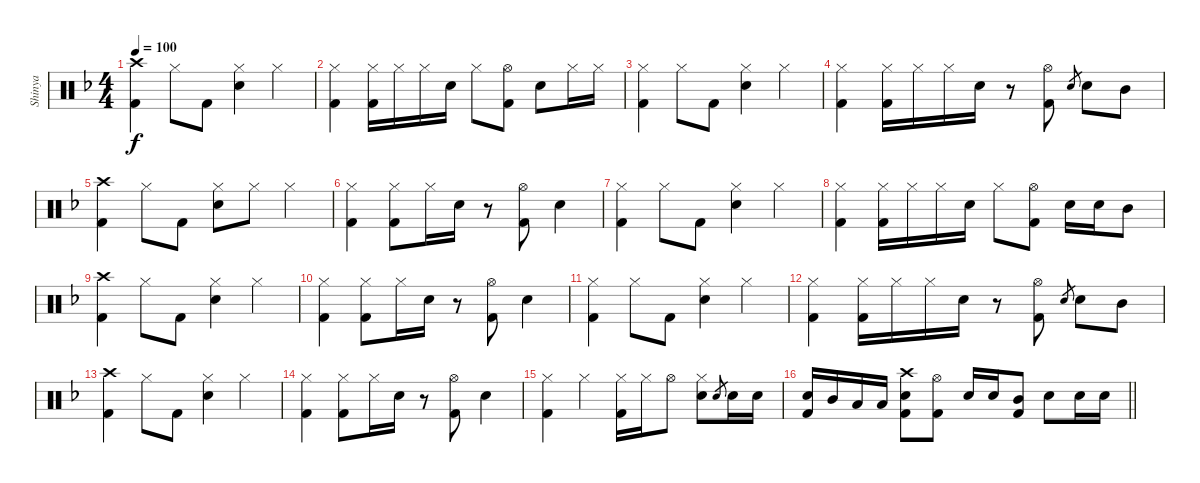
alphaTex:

\track ("Shinya" "Shinya") {instrument percussion}
\staff {score}
\articulation defaults
\ts (4 4)
\tempo 100
\clef neutral
\ks f
("Crash high (hit)" "Kick (hit) 2").4{dy f} "Hi-Hat (closed)".8 "Kick (hit) 2".8 ("Hi-Hat (closed)" "Electric Snare (hit)").4 "Hi-Hat (closed)".4 |
("Hi-Hat (closed)" "Kick (hit) 2").4 ("Hi-Hat (closed)" "Kick (hit) 2").16 "Hi-Hat (closed)".16 "Hi-Hat (closed)".16 "Electric Snare (hit)".16 "Hi-Hat (closed)".8 ("Hi-Hat (open)" "Kick (hit) 2").8 "Electric Snare (hit)".8 "Hi-Hat (closed)".16 "Hi-Hat (closed)".16 |
("Hi-Hat (closed)" "Kick (hit) 2").4 "Hi-Hat (closed)".8 "Kick (hit) 2".8 ("Hi-Hat (closed)" "Electric Snare (hit)").4 "Hi-Hat (closed)".4 |
("Hi-Hat (closed)" "Kick (hit) 2").4 ("Hi-Hat (closed)" "Kick (hit) 2").16 "Hi-Hat (closed)".16 "Hi-Hat (closed)".16 "Electric Snare (hit)".16 r.8 ("Hi-Hat (open)" "Kick (hit) 2").8 "Electric Snare (hit)".8{gr} "Electric Snare (hit)".8 "Mid Tom (hit)".8 |
("Crash high (hit)" "Kick (hit) 2").4 "Hi-Hat (closed)".8 "Kick (hit) 2".8 ("Hi-Hat (closed)" "Electric Snare (hit)").8 "Hi-Hat (closed)".8 "Hi-Hat (closed)".4 |
("Hi-Hat (closed)" "Kick (hit) 2").4 ("Hi-Hat (closed)" "Kick (hit) 2").8 "Hi-Hat (closed)".16 "Electric Snare (hit)".16 r.8 ("Hi-Hat (open)" "Kick (hit) 2").8 "Electric Snare (hit)".4 |
("Hi-Hat (closed)" "Kick (hit) 2").4 "Hi-Hat (closed)".8 "Kick (hit) 2".8 ("Hi-Hat (closed)" "Electric Snare (hit)").4 "Hi-Hat (closed)".4 |
("Hi-Hat (closed)" "Kick (hit) 2").4 ("Hi-Hat (closed)" "Kick (hit) 2").16 "Hi-Hat (closed)".16 "Hi-Hat (closed)".16 "Electric Snare (hit)".16 "Hi-Hat (closed)".8 ("Hi-Hat (open)" "Kick (hit) 2").8 "Electric Snare (hit)".16 "Electric Snare (hit)".16 "Mid Tom (hit)".8 |
("Crash high (hit)" "Kick (hit) 2").4 "Hi-Hat (closed)".8 "Kick (hit) 2".8 ("Hi-Hat (closed)" "Electric Snare (hit)").4 "Hi-Hat (closed)".4 |
("Hi-Hat (closed)" "Kick (hit) 2").4 ("Hi-Hat (closed)" "Kick (hit) 2").8 "Hi-Hat (closed)".16 "Electric Snare (hit)".16 r.8 ("Hi-Hat (open)" "Kick (hit) 2").8 "Electric Snare (hit)".4 |
("Hi-Hat (closed)" "Kick (hit) 2").4 "Hi-Hat (closed)".8 "Kick (hit) 2".8 ("Hi-Hat (closed)" "Electric Snare (hit)").4 "Hi-Hat (closed)".4 |
("Hi-Hat (closed)" "Kick (hit) 2").4 ("Hi-Hat (closed)" "Kick (hit) 2").16 "Hi-Hat (closed)".16 "Hi-Hat (closed)".16 "Electric Snare (hit)".16 r.8 ("Hi-Hat (open)" "Kick (hit) 2").8 "Electric Snare (hit)".8{gr} "Electric Snare (hit)".8 "Mid Tom (hit)".8 |
("Crash high (hit)" "Kick (hit) 2").4 "Hi-Hat (closed)".8 "Kick (hit) 2".8 ("Hi-Hat (closed)" "Electric Snare (hit)").4 "Hi-Hat (closed)".4 |
("Hi-Hat (closed)" "Kick (hit) 2").4 ("Hi-Hat (closed)" "Kick (hit) 2").8 "Hi-Hat (closed)".16 "Electric Snare (hit)".16 r.8 ("Hi-Hat (open)" "Kick (hit) 2").8 "Electric Snare (hit)".4 |
("Hi-Hat (closed)" "Kick (hit) 2").4 "Hi-Hat (closed)".4 ("Hi-Hat (closed)" "Kick (hit) 2").16 "Hi-Hat (closed)".16 "Hi-Hat (open)".8 ("Hi-Hat (closed)" "Electric Snare (hit)").8 "Electric Snare (hit)".8{gr} "Electric Snare (hit)".16 "Electric Snare (hit)".16 |
\barLineRight lightlight
("Electric Snare (hit)" "Kick (hit) 2").16 "Mid Tom (hit)".16 "Low Tom (hit)".16 "Low Tom (hit)".16 ("Crash high (hit)" "Electric Snare (hit)" "Kick (hit) 2").8 ("Hi-Hat (open)" "Kick (hit) 2").8 "Electric Snare (hit)".16 "Electric Snare (hit)".16 ("Mid Tom (hit)" "Kick (hit) 2").8 "Electric Snare (hit)".8 "Electric Snare (hit)".16 "Electric Snare (hit)".16
